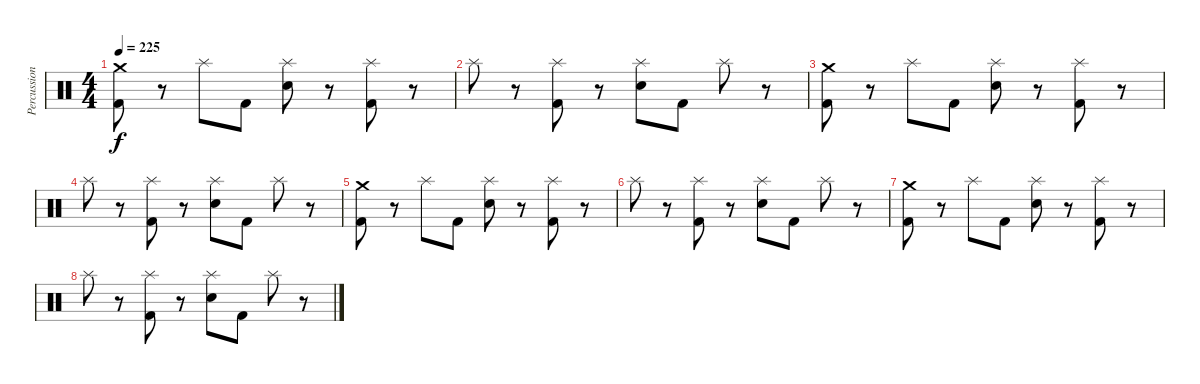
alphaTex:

\track ("Percussion" "Percussion") {instrument percussion}
\staff {score}
\articulation defaults
\ts (4 4)
\tempo 225
\clef neutral
\ks c
("Crash medium (hit)" "Kick (hit) 2").8{dy f} r.8 "Splash (hit)".8 "Kick (hit) 2".8 ("Splash (hit)" "Electric Snare (hit)").8 r.8 ("Splash (hit)" "Kick (hit) 2").8 r.8 |
"Splash (hit)".8 r.8 ("Splash (hit)" "Kick (hit) 2").8 r.8 ("Splash (hit)" "Electric Snare (hit)").8 "Kick (hit) 2".8 "Splash (hit)".8 r.8 |
("Crash medium (hit)" "Kick (hit) 2").8 r.8 "Splash (hit)".8 "Kick (hit) 2".8 ("Splash (hit)" "Electric Snare (hit)").8 r.8 ("Splash (hit)" "Kick (hit) 2").8 r.8 |
"Splash (hit)".8 r.8 ("Splash (hit)" "Kick (hit) 2").8 r.8 ("Splash (hit)" "Electric Snare (hit)").8 "Kick (hit) 2".8 "Splash (hit)".8 r.8 |
("Crash medium (hit)" "Kick (hit) 2").8 r.8 "Splash (hit)".8 "Kick (hit) 2".8 ("Splash (hit)" "Electric Snare (hit)").8 r.8 ("Splash (hit)" "Kick (hit) 2").8 r.8 |
"Splash (hit)".8 r.8 ("Splash (hit)" "Kick (hit) 2").8 r.8 ("Splash (hit)" "Electric Snare (hit)").8 "Kick (hit) 2".8 "Splash (hit)".8 r.8 |
("Crash medium (hit)" "Kick (hit) 2").8 r.8 "Splash (hit)".8 "Kick (hit) 2".8 ("Splash (hit)" "Electric Snare (hit)").8 r.8 ("Splash (hit)" "Kick (hit) 2").8 r.8 |
"Splash (hit)".8 r.8 ("Splash (hit)" "Kick (hit) 2").8 r.8 ("Splash (hit)" "Electric Snare (hit)").8 "Kick (hit) 2".8 "Splash (hit)".8 r.8
